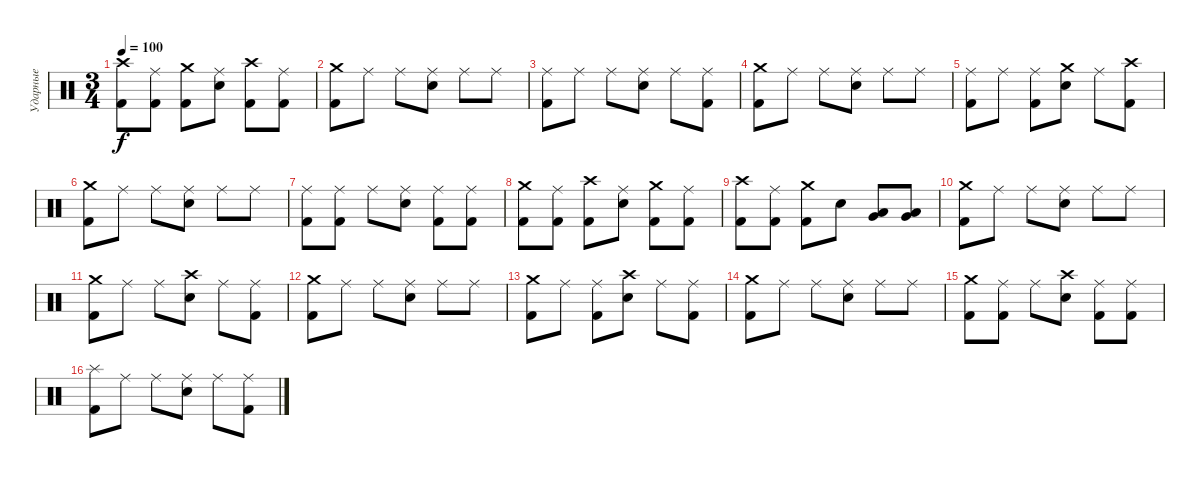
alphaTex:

\track ("Ударные" "Ударные") {instrument percussion}
\staff {score}
\articulation defaults
\ts (3 4)
\tempo 100
\clef neutral
\ks c
("Crash high (hit)" "Kick (hit) 2").8{dy f} ("Ride (middle)" "Kick (hit) 2").8 ("Crash medium (hit)" "Kick (hit) 2").8 ("Ride (middle)" "Electric Snare (hit)").8 ("Crash high (hit)" "Kick (hit) 2").8 ("Ride (middle)" "Kick (hit) 2").8 |
("Crash medium (hit)" "Kick (hit) 2").8 "Ride (middle)".8 "Ride (middle)".8 ("Ride (middle)" "Electric Snare (hit)").8 "Ride (middle)".8 "Ride (middle)".8 |
("Ride (middle)" "Kick (hit) 2").8 "Ride (middle)".8 "Ride (middle)".8 ("Ride (middle)" "Electric Snare (hit)").8 "Ride (middle)".8 ("Ride (middle)" "Kick (hit) 2").8 |
("Crash medium (hit)" "Kick (hit) 2").8 "Ride (middle)".8 "Ride (middle)".8 ("Ride (middle)" "Electric Snare (hit)").8 "Ride (middle)".8 "Ride (middle)".8 |
("Ride (middle)" "Kick (hit) 2").8 "Ride (middle)".8 ("Ride (middle)" "Kick (hit) 2").8 ("Crash medium (hit)" "Electric Snare (hit)").8 "Ride (middle)".8 ("Crash high (hit)" "Kick (hit) 2").8 |
("Crash medium (hit)" "Kick (hit) 2").8 "Ride (middle)".8 "Ride (middle)".8 ("Ride (middle)" "Electric Snare (hit)").8 "Ride (middle)".8 "Ride (middle)".8 |
("Ride (middle)" "Kick (hit) 2").8 ("Ride (middle)" "Kick (hit) 2").8 "Ride (middle)".8 ("Ride (middle)" "Electric Snare (hit)").8 ("Ride (middle)" "Kick (hit) 2").8 ("Ride (middle)" "Kick (hit) 2").8 |
("Crash medium (hit)" "Kick (hit) 2").8 ("Ride (middle)" "Kick (hit) 2").8 ("Crash high (hit)" "Kick (hit) 2").8 ("Ride (middle)" "Electric Snare (hit)").8 ("Crash medium (hit)" "Kick (hit) 2").8 ("Ride (middle)" "Kick (hit) 2").8 |
("Crash high (hit)" "Kick (hit) 2").8 ("Ride (middle)" "Kick (hit) 2").8 ("Crash medium (hit)" "Kick (hit) 2").8 "Electric Snare (hit)".8 ("Low Tom (hit)" "Very Low Tom (hit)").8 ("Very Low Tom (hit)" "Low Floor Tom (hit)").8 |
("Crash medium (hit)" "Kick (hit) 2").8 "Ride (middle)".8 "Ride (middle)".8 ("Ride (middle)" "Electric Snare (hit)").8 "Ride (middle)".8 "Ride (middle)".8 |
("Crash medium (hit)" "Kick (hit) 2").8 "Ride (middle)".8 "Ride (middle)".8 ("Crash high (hit)" "Electric Snare (hit)").8 "Ride (middle)".8 ("Ride (middle)" "Kick (hit) 2").8 |
("Crash medium (hit)" "Kick (hit) 2").8 "Ride (middle)".8 "Ride (middle)".8 ("Ride (middle)" "Electric Snare (hit)").8 "Ride (middle)".8 "Ride (middle)".8 |
("Crash medium (hit)" "Kick (hit) 2").8 "Ride (middle)".8 ("Ride (middle)" "Kick (hit) 2").8 ("Crash high (hit)" "Electric Snare (hit)").8 "Ride (middle)".8 ("Ride (middle)" "Kick (hit) 2").8 |
("Crash medium (hit)" "Kick (hit) 2").8 "Ride (middle)".8 "Ride (middle)".8 ("Ride (middle)" "Electric Snare (hit)").8 "Ride (middle)".8 "Ride (middle)".8 |
("Crash medium (hit)" "Kick (hit) 2").8 ("Ride (middle)" "Kick (hit) 2").8 "Ride (middle)".8 ("Crash high (hit)" "Electric Snare (hit)").8 ("Ride (middle)" "Kick (hit) 2").8 ("Ride (middle)" "Kick (hit) 2").8 |
("Splash (hit)" "Kick (hit) 2").8 "Ride (middle)".8 "Ride (middle)".8 ("Ride (middle)" "Electric Snare (hit)").8 "Ride (middle)".8 ("Ride (middle)" "Kick (hit) 2").8
